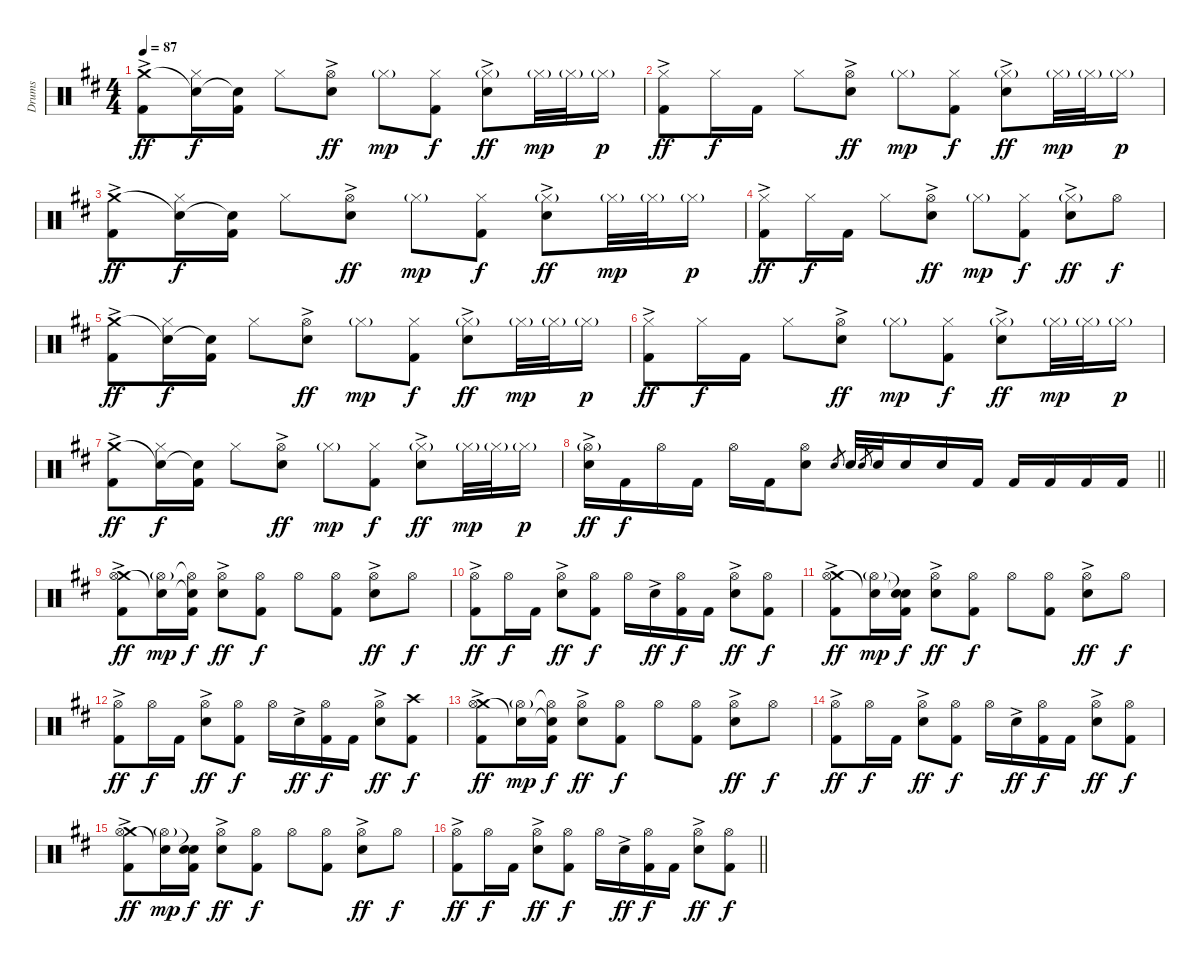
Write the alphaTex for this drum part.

\track ("Drums" "Drums") {instrument percussion}
\staff {score}
\articulation defaults
\ts (4 4)
\tempo 87
\clef neutral
\ks d
("Crash medium (hit)" "Kick (hit) 2"{ac}).8{dy ff} ("Snare (hit)"{t} "Hi-Hat (closed)").16{dy f} ("Snare (hit)"{t} "Kick (hit) 2").16 "Hi-Hat (closed)".8 ("Hi-Hat (open)" "Electric Snare (hit)"{ac}).8{dy ff} "Hi-Hat (closed)"{g}.8{dy mp} ("Hi-Hat (closed)" "Kick (hit) 2").8{dy f} ("Hi-Hat (closed)"{g} "Electric Snare (hit)"{ac}).8{dy ff} "Hi-Hat (closed)"{g}.32{dy mp} "Hi-Hat (closed)"{g}.32 "Hi-Hat (closed)"{g}.16{dy p} |
("Hi-Hat (closed)" "Kick (hit) 2"{ac}).8{dy ff} "Hi-Hat (closed)".16{dy f} "Kick (hit) 2".16 "Hi-Hat (closed)".8 ("Hi-Hat (open)" "Electric Snare (hit)"{ac}).8{dy ff} "Hi-Hat (closed)"{g}.8{dy mp} ("Hi-Hat (closed)" "Kick (hit) 2").8{dy f} ("Hi-Hat (closed)"{g} "Electric Snare (hit)"{ac}).8{dy ff} "Hi-Hat (closed)"{g}.32{dy mp} "Hi-Hat (closed)"{g}.32 "Hi-Hat (closed)"{g}.16{dy p} |
("Crash medium (hit)" "Kick (hit) 2"{ac}).8{dy ff} ("Snare (hit)"{t} "Hi-Hat (closed)").16{dy f} ("Snare (hit)"{t} "Kick (hit) 2").16 "Hi-Hat (closed)".8 ("Hi-Hat (open)" "Electric Snare (hit)"{ac}).8{dy ff} "Hi-Hat (closed)"{g}.8{dy mp} ("Hi-Hat (closed)" "Kick (hit) 2").8{dy f} ("Hi-Hat (closed)"{g} "Electric Snare (hit)"{ac}).8{dy ff} "Hi-Hat (closed)"{g}.32{dy mp} "Hi-Hat (closed)"{g}.32 "Hi-Hat (closed)"{g}.16{dy p} |
("Hi-Hat (closed)" "Kick (hit) 2"{ac}).8{dy ff} "Hi-Hat (closed)".16{dy f} "Kick (hit) 2".16 "Hi-Hat (closed)".8 ("Hi-Hat (open)" "Electric Snare (hit)"{ac}).8{dy ff} "Hi-Hat (closed)"{g}.8{dy mp} ("Hi-Hat (closed)" "Kick (hit) 2").8{dy f} ("Hi-Hat (closed)"{g} "Electric Snare (hit)"{ac}).8{dy ff} "Hi-Hat (open)".8{dy f} |
("Crash medium (hit)" "Kick (hit) 2"{ac}).8{dy ff} ("Snare (hit)"{t} "Hi-Hat (closed)").16{dy f} ("Snare (hit)"{t} "Kick (hit) 2").16 "Hi-Hat (closed)".8 ("Hi-Hat (open)" "Electric Snare (hit)"{ac}).8{dy ff} "Hi-Hat (closed)"{g}.8{dy mp} ("Hi-Hat (closed)" "Kick (hit) 2").8{dy f} ("Hi-Hat (closed)"{g} "Electric Snare (hit)"{ac}).8{dy ff} "Hi-Hat (closed)"{g}.32{dy mp} "Hi-Hat (closed)"{g}.32 "Hi-Hat (closed)"{g}.16{dy p} |
("Hi-Hat (closed)" "Kick (hit) 2"{ac}).8{dy ff} "Hi-Hat (closed)".16{dy f} "Kick (hit) 2".16 "Hi-Hat (closed)".8 ("Hi-Hat (open)" "Electric Snare (hit)"{ac}).8{dy ff} "Hi-Hat (closed)"{g}.8{dy mp} ("Hi-Hat (closed)" "Kick (hit) 2").8{dy f} ("Hi-Hat (closed)"{g} "Electric Snare (hit)"{ac}).8{dy ff} "Hi-Hat (closed)"{g}.32{dy mp} "Hi-Hat (closed)"{g}.32 "Hi-Hat (closed)"{g}.16{dy p} |
("Crash medium (hit)" "Kick (hit) 2"{ac}).8{dy ff} ("Snare (hit)"{t} "Hi-Hat (closed)").16{dy f} ("Snare (hit)"{t} "Kick (hit) 2").16 "Hi-Hat (closed)".8 ("Hi-Hat (open)" "Electric Snare (hit)"{ac}).8{dy ff} "Hi-Hat (closed)"{g}.8{dy mp} ("Hi-Hat (closed)" "Kick (hit) 2").8{dy f} ("Hi-Hat (closed)"{g} "Electric Snare (hit)"{ac}).8{dy ff} "Hi-Hat (closed)"{g}.32{dy mp} "Hi-Hat (closed)"{g}.32 "Hi-Hat (closed)"{g}.16{dy p} |
\barLineRight lightlight
("Hi-Hat (open)"{g} "Electric Snare (hit)"{ac}).16{dy ff} "Kick (hit) 2".16{dy f} "Hi-Hat (open)".16 "Kick (hit) 2".16 "Hi-Hat (open)".16 "Kick (hit) 2".16 ("Hi-Hat (open)" "Electric Snare (hit)").8 "Electric Snare (hit)".8{gr} "Electric Snare (hit)".32 "Electric Snare (hit)".8{gr} "Electric Snare (hit)".32 "Electric Snare (hit)".16 "Electric Snare (hit)".16 "Kick (hit) 2".16 "Kick (hit) 2".16 "Kick (hit) 2".16 "Kick (hit) 2".16 "Kick (hit) 2".16 |
("Crash medium (hit)" "Hi-Hat (open)" "Kick (hit) 2"{ac}).8{dy ff} ("Snare (hit)"{t} "Hi-Hat (open)"{g}).16{dy mp} ("Snare (hit)"{t} "Hi-Hat (open)"{t} "Kick (hit) 2").16{dy f} ("Hi-Hat (open)" "Electric Snare (hit)"{ac}).8{dy ff} ("Hi-Hat (open)" "Kick (hit) 2").8{dy f} "Hi-Hat (open)".8 ("Hi-Hat (open)" "Kick (hit) 2").8 ("Hi-Hat (open)" "Electric Snare (hit)"{ac}).8{dy ff} "Hi-Hat (open)".8{dy f} |
("Hi-Hat (open)" "Kick (hit) 2"{ac}).8{dy ff} "Hi-Hat (open)".16{dy f} "Kick (hit) 2".16 ("Hi-Hat (open)" "Electric Snare (hit)"{ac}).8{dy ff} ("Hi-Hat (open)" "Kick (hit) 2").8{dy f} "Hi-Hat (open)".16 "Electric Snare (hit)"{ac}.16{dy ff} ("Hi-Hat (open)" "Kick (hit) 2").16{dy f} "Kick (hit) 2".16 ("Hi-Hat (open)" "Electric Snare (hit)"{ac}).8{dy ff} ("Hi-Hat (open)" "Kick (hit) 2").8{dy f} |
("Crash medium (hit)" "Hi-Hat (open)" "Kick (hit) 2"{ac}).8{dy ff} ("Snare (hit)"{t} "Hi-Hat (open)"{g}).16{dy mp} ("Snare (hit)"{t} "Snare (hit)"{t} "Kick (hit) 2").16{dy f} ("Hi-Hat (open)" "Electric Snare (hit)"{ac}).8{dy ff} ("Hi-Hat (open)" "Kick (hit) 2").8{dy f} "Hi-Hat (open)".8 ("Hi-Hat (open)" "Kick (hit) 2").8 ("Hi-Hat (open)" "Electric Snare (hit)"{ac}).8{dy ff} "Hi-Hat (open)".8{dy f} |
("Hi-Hat (open)" "Kick (hit) 2"{ac}).8{dy ff} "Hi-Hat (open)".16{dy f} "Kick (hit) 2".16 ("Hi-Hat (open)" "Electric Snare (hit)"{ac}).8{dy ff} ("Hi-Hat (open)" "Kick (hit) 2").8{dy f} "Hi-Hat (open)".16 "Electric Snare (hit)"{ac}.16{dy ff} ("Hi-Hat (open)" "Kick (hit) 2").16{dy f} "Kick (hit) 2".16 ("Hi-Hat (open)" "Electric Snare (hit)"{ac}).8{dy ff} ("Crash high (hit)" "Kick (hit) 2").8{dy f} |
("Crash medium (hit)" "Hi-Hat (open)" "Kick (hit) 2"{ac}).8{dy ff} ("Snare (hit)"{t} "Hi-Hat (open)"{g}).16{dy mp} ("Snare (hit)"{t} "Hi-Hat (open)"{t} "Kick (hit) 2").16{dy f} ("Hi-Hat (open)" "Electric Snare (hit)"{ac}).8{dy ff} ("Hi-Hat (open)" "Kick (hit) 2").8{dy f} "Hi-Hat (open)".8 ("Hi-Hat (open)" "Kick (hit) 2").8 ("Hi-Hat (open)" "Electric Snare (hit)"{ac}).8{dy ff} "Hi-Hat (open)".8{dy f} |
("Hi-Hat (open)" "Kick (hit) 2"{ac}).8{dy ff} "Hi-Hat (open)".16{dy f} "Kick (hit) 2".16 ("Hi-Hat (open)" "Electric Snare (hit)"{ac}).8{dy ff} ("Hi-Hat (open)" "Kick (hit) 2").8{dy f} "Hi-Hat (open)".16 "Electric Snare (hit)"{ac}.16{dy ff} ("Hi-Hat (open)" "Kick (hit) 2").16{dy f} "Kick (hit) 2".16 ("Hi-Hat (open)" "Electric Snare (hit)"{ac}).8{dy ff} ("Hi-Hat (open)" "Kick (hit) 2").8{dy f} |
("Crash medium (hit)" "Hi-Hat (open)" "Kick (hit) 2"{ac}).8{dy ff} ("Snare (hit)"{t} "Hi-Hat (open)"{g}).16{dy mp} ("Snare (hit)"{t} "Snare (hit)"{t} "Kick (hit) 2").16{dy f} ("Hi-Hat (open)" "Electric Snare (hit)"{ac}).8{dy ff} ("Hi-Hat (open)" "Kick (hit) 2").8{dy f} "Hi-Hat (open)".8 ("Hi-Hat (open)" "Kick (hit) 2").8 ("Hi-Hat (open)" "Electric Snare (hit)"{ac}).8{dy ff} "Hi-Hat (open)".8{dy f} |
\barLineRight lightlight
("Hi-Hat (open)" "Kick (hit) 2"{ac}).8{dy ff} "Hi-Hat (open)".16{dy f} "Kick (hit) 2".16 ("Hi-Hat (open)" "Electric Snare (hit)"{ac}).8{dy ff} ("Hi-Hat (open)" "Kick (hit) 2").8{dy f} "Hi-Hat (open)".16 "Electric Snare (hit)"{ac}.16{dy ff} ("Hi-Hat (open)" "Kick (hit) 2").16{dy f} "Kick (hit) 2".16 ("Hi-Hat (open)" "Electric Snare (hit)"{ac}).8{dy ff} ("Hi-Hat (open)" "Kick (hit) 2").8{dy f}
